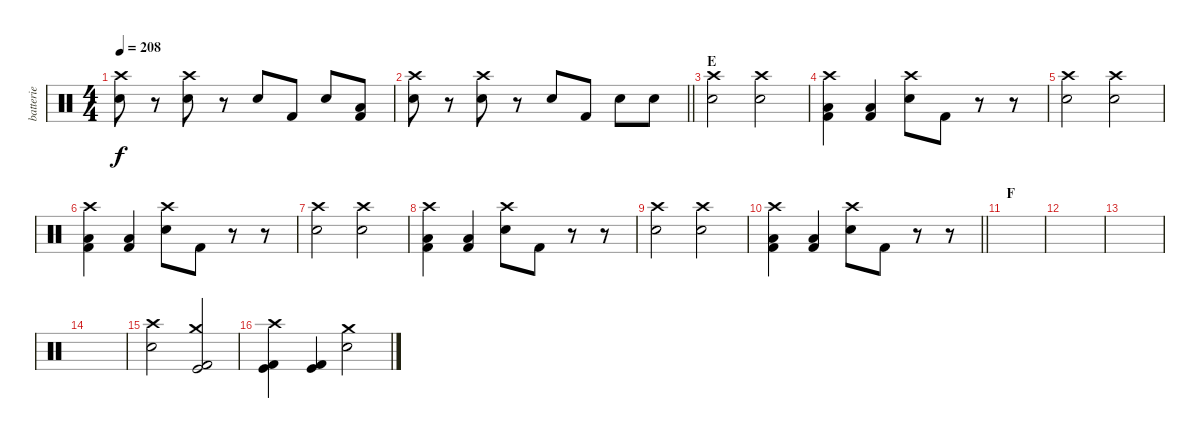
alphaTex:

\track ("batterie" "batterie") {instrument percussion}
\staff {score}
\articulation defaults
\ts (4 4)
\tempo 208
\clef neutral
\ks c
("Snare (hit) 2" "Crash high (hit)").8{dy f} r.8 ("Snare (hit) 2" "Crash high (hit)").8 r.8 "Electric Snare (hit)".8 "Kick (hit) 2".8 "Snare (hit)".8 ("Low Floor Tom (hit)" "Kick (hit) 2").8 |
\barLineRight lightlight
("Snare (hit) 2" "Crash high (hit)").8 r.8 ("Snare (hit) 2" "Crash high (hit)").8 r.8 "Electric Snare (hit)".8 "Kick (hit) 2".8 "Snare (hit)".8 "Snare (hit)".8 |
\section ("" "E")
("Snare (hit) 2" "Crash high (hit)").2 ("Snare (hit) 2" "Crash high (hit)").2 |
("Low Floor Tom (hit)" "Crash high (hit)" "Kick (hit) 2").4 ("Low Floor Tom (hit)" "Kick (hit) 2").4 ("Crash high (hit)" "Electric Snare (hit)").8 "Kick (hit) 2".8 r.8 r.8 |
("Snare (hit) 2" "Crash high (hit)").2 ("Snare (hit) 2" "Crash high (hit)").2 |
("Low Floor Tom (hit)" "Crash high (hit)" "Kick (hit) 2").4 ("Low Floor Tom (hit)" "Kick (hit) 2").4 ("Crash high (hit)" "Electric Snare (hit)").8 "Kick (hit) 2".8 r.8 r.8 |
("Snare (hit) 2" "Crash high (hit)").2 ("Snare (hit) 2" "Crash high (hit)").2 |
("Low Floor Tom (hit)" "Crash high (hit)" "Kick (hit) 2").4 ("Low Floor Tom (hit)" "Kick (hit) 2").4 ("Crash high (hit)" "Electric Snare (hit)").8 "Kick (hit) 2".8 r.8 r.8 |
("Snare (hit) 2" "Crash high (hit)").2 ("Snare (hit) 2" "Crash high (hit)").2 |
\barLineRight lightlight
("Low Floor Tom (hit)" "Crash high (hit)" "Kick (hit) 2").4 ("Low Floor Tom (hit)" "Kick (hit) 2").4 ("Crash high (hit)" "Electric Snare (hit)").8 "Kick (hit) 2".8 r.8 r.8 |
\section ("" "F")
|
|
|
|
("Snare (hit) 2" "Crash high (hit)").2 ("Crash medium (hit)" "Kick (hit)" "Kick (hit) 2").2 |
("Crash high (hit)" "Kick (hit)" "Kick (hit) 2").4 ("Kick (hit)" "Kick (hit) 2").4 ("Crash medium (hit)" "Snare (hit) 2").2
